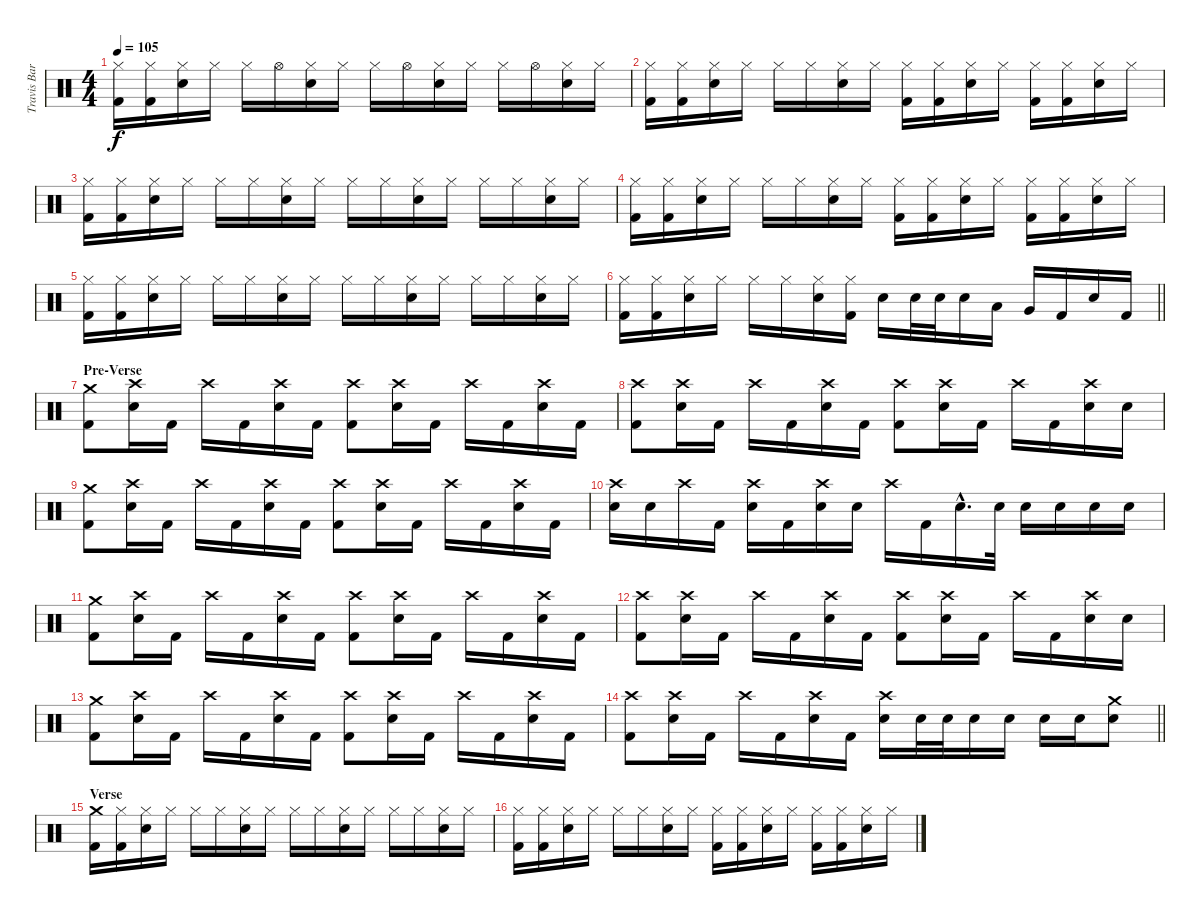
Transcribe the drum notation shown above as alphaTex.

\track ("Travis Barker" "Travis Bar") {instrument percussion}
\staff {score}
\articulation defaults
\ts (4 4)
\tempo 105
\clef neutral
\ks c
("Hi-Hat (closed)" "Kick (hit) 2").16{dy f} ("Hi-Hat (closed)" "Kick (hit) 2").16 ("Hi-Hat (closed)" "Electric Snare (hit)").16 "Hi-Hat (closed)".16 "Hi-Hat (closed)".16 "Hi-Hat (open)".16 ("Hi-Hat (closed)" "Electric Snare (hit)").16 "Hi-Hat (closed)".16 "Hi-Hat (closed)".16 "Hi-Hat (open)".16 ("Hi-Hat (closed)" "Electric Snare (hit)").16 "Hi-Hat (closed)".16 "Hi-Hat (closed)".16 "Hi-Hat (open)".16 ("Hi-Hat (closed)" "Electric Snare (hit)").16 "Hi-Hat (closed)".16 |
("Hi-Hat (closed)" "Kick (hit) 2").16 ("Hi-Hat (closed)" "Kick (hit) 2").16 ("Hi-Hat (closed)" "Electric Snare (hit)").16 "Hi-Hat (closed)".16 "Hi-Hat (closed)".16 "Hi-Hat (closed)".16 ("Hi-Hat (closed)" "Electric Snare (hit)").16 "Hi-Hat (closed)".16 ("Hi-Hat (closed)" "Kick (hit) 2").16 ("Hi-Hat (closed)" "Kick (hit) 2").16 ("Hi-Hat (closed)" "Electric Snare (hit)").16 "Hi-Hat (closed)".16 ("Hi-Hat (closed)" "Kick (hit) 2").16 ("Hi-Hat (closed)" "Kick (hit) 2").16 ("Hi-Hat (closed)" "Electric Snare (hit)").16 "Hi-Hat (closed)".16 |
("Hi-Hat (closed)" "Kick (hit) 2").16 ("Hi-Hat (closed)" "Kick (hit) 2").16 ("Hi-Hat (closed)" "Electric Snare (hit)").16 "Hi-Hat (closed)".16 "Hi-Hat (closed)".16 "Hi-Hat (closed)".16 ("Hi-Hat (closed)" "Electric Snare (hit)").16 "Hi-Hat (closed)".16 "Hi-Hat (closed)".16 "Hi-Hat (closed)".16 ("Hi-Hat (closed)" "Electric Snare (hit)").16 "Hi-Hat (closed)".16 "Hi-Hat (closed)".16 "Hi-Hat (closed)".16 ("Hi-Hat (closed)" "Electric Snare (hit)").16 "Hi-Hat (closed)".16 |
("Hi-Hat (closed)" "Kick (hit) 2").16 ("Hi-Hat (closed)" "Kick (hit) 2").16 ("Hi-Hat (closed)" "Electric Snare (hit)").16 "Hi-Hat (closed)".16 "Hi-Hat (closed)".16 "Hi-Hat (closed)".16 ("Hi-Hat (closed)" "Electric Snare (hit)").16 "Hi-Hat (closed)".16 ("Hi-Hat (closed)" "Kick (hit) 2").16 ("Hi-Hat (closed)" "Kick (hit) 2").16 ("Hi-Hat (closed)" "Electric Snare (hit)").16 "Hi-Hat (closed)".16 ("Hi-Hat (closed)" "Kick (hit) 2").16 ("Hi-Hat (closed)" "Kick (hit) 2").16 ("Hi-Hat (closed)" "Electric Snare (hit)").16 "Hi-Hat (closed)".16 |
("Hi-Hat (closed)" "Kick (hit) 2").16 ("Hi-Hat (closed)" "Kick (hit) 2").16 ("Hi-Hat (closed)" "Electric Snare (hit)").16 "Hi-Hat (closed)".16 "Hi-Hat (closed)".16 "Hi-Hat (closed)".16 ("Hi-Hat (closed)" "Electric Snare (hit)").16 "Hi-Hat (closed)".16 "Hi-Hat (closed)".16 "Hi-Hat (closed)".16 ("Hi-Hat (closed)" "Electric Snare (hit)").16 "Hi-Hat (closed)".16 "Hi-Hat (closed)".16 "Hi-Hat (closed)".16 ("Hi-Hat (closed)" "Electric Snare (hit)").16 "Hi-Hat (closed)".16 |
\barLineRight lightlight
("Hi-Hat (closed)" "Kick (hit) 2").16 ("Hi-Hat (closed)" "Kick (hit) 2").16 ("Hi-Hat (closed)" "Electric Snare (hit)").16 "Hi-Hat (closed)".16 "Hi-Hat (closed)".16 "Hi-Hat (closed)".16 ("Hi-Hat (closed)" "Electric Snare (hit)").16 ("Hi-Hat (closed)" "Kick (hit) 2").16 "Electric Snare (hit)".16 "Electric Snare (hit)".32 "Electric Snare (hit)".32 "Electric Snare (hit)".16 "Low Tom (hit)".16 "Very Low Tom (hit)".16 "Kick (hit) 2".16 "Electric Snare (hit)".16 "Kick (hit) 2".16 |
\section ("" "Pre-Verse")
("Crash medium (hit)" "Kick (hit) 2").8 ("Crash high (hit)" "Electric Snare (hit)").16 "Kick (hit) 2".16 "Crash high (hit)".16 "Kick (hit) 2".16 ("Crash high (hit)" "Electric Snare (hit)").16 "Kick (hit) 2".16 ("Crash high (hit)" "Kick (hit) 2").8 ("Crash high (hit)" "Electric Snare (hit)").16 "Kick (hit) 2".16 "Crash high (hit)".16 "Kick (hit) 2".16 ("Crash high (hit)" "Electric Snare (hit)").16 "Kick (hit) 2".16 |
("Crash high (hit)" "Kick (hit) 2").8 ("Crash high (hit)" "Electric Snare (hit)").16 "Kick (hit) 2".16 "Crash high (hit)".16 "Kick (hit) 2".16 ("Crash high (hit)" "Electric Snare (hit)").16 "Kick (hit) 2".16 ("Crash high (hit)" "Kick (hit) 2").8 ("Crash high (hit)" "Electric Snare (hit)").16 "Kick (hit) 2".16 "Crash high (hit)".16 "Kick (hit) 2".16 ("Crash high (hit)" "Electric Snare (hit)").16 "Electric Snare (hit)".16 |
("Crash medium (hit)" "Kick (hit) 2").8 ("Crash high (hit)" "Electric Snare (hit)").16 "Kick (hit) 2".16 "Crash high (hit)".16 "Kick (hit) 2".16 ("Crash high (hit)" "Electric Snare (hit)").16 "Kick (hit) 2".16 ("Crash high (hit)" "Kick (hit) 2").8 ("Crash high (hit)" "Electric Snare (hit)").16 "Kick (hit) 2".16 "Crash high (hit)".16 "Kick (hit) 2".16 ("Crash high (hit)" "Electric Snare (hit)").16 "Kick (hit) 2".16 |
("Crash high (hit)" "Electric Snare (hit)").16 "Electric Snare (hit)".16 "Crash high (hit)".16 "Kick (hit) 2".16 ("Crash high (hit)" "Electric Snare (hit)").16 "Kick (hit) 2".16 ("Crash high (hit)" "Electric Snare (hit)").16 "Electric Snare (hit)".16 "Crash high (hit)".16 "Kick (hit) 2".16 "Electric Snare (hit)"{hac}.16{d} "Electric Snare (hit)".32 "Electric Snare (hit)".16 "Electric Snare (hit)".16 "Electric Snare (hit)".16 "Electric Snare (hit)".16 |
("Crash medium (hit)" "Kick (hit) 2").8 ("Crash high (hit)" "Electric Snare (hit)").16 "Kick (hit) 2".16 "Crash high (hit)".16 "Kick (hit) 2".16 ("Crash high (hit)" "Electric Snare (hit)").16 "Kick (hit) 2".16 ("Crash high (hit)" "Kick (hit) 2").8 ("Crash high (hit)" "Electric Snare (hit)").16 "Kick (hit) 2".16 "Crash high (hit)".16 "Kick (hit) 2".16 ("Crash high (hit)" "Electric Snare (hit)").16 "Kick (hit) 2".16 |
("Crash high (hit)" "Kick (hit) 2").8 ("Crash high (hit)" "Electric Snare (hit)").16 "Kick (hit) 2".16 "Crash high (hit)".16 "Kick (hit) 2".16 ("Crash high (hit)" "Electric Snare (hit)").16 "Kick (hit) 2".16 ("Crash high (hit)" "Kick (hit) 2").8 ("Crash high (hit)" "Electric Snare (hit)").16 "Kick (hit) 2".16 "Crash high (hit)".16 "Kick (hit) 2".16 ("Crash high (hit)" "Electric Snare (hit)").16 "Electric Snare (hit)".16 |
("Crash medium (hit)" "Kick (hit) 2").8 ("Crash high (hit)" "Electric Snare (hit)").16 "Kick (hit) 2".16 "Crash high (hit)".16 "Kick (hit) 2".16 ("Crash high (hit)" "Electric Snare (hit)").16 "Kick (hit) 2".16 ("Crash high (hit)" "Kick (hit) 2").8 ("Crash high (hit)" "Electric Snare (hit)").16 "Kick (hit) 2".16 "Crash high (hit)".16 "Kick (hit) 2".16 ("Crash high (hit)" "Electric Snare (hit)").16 "Kick (hit) 2".16 |
\barLineRight lightlight
("Crash high (hit)" "Kick (hit) 2").8 ("Crash high (hit)" "Electric Snare (hit)").16 "Kick (hit) 2".16 "Crash high (hit)".16 "Kick (hit) 2".16 ("Crash high (hit)" "Electric Snare (hit)").16 "Kick (hit) 2".16 ("Crash high (hit)" "Electric Snare (hit)").16 "Electric Snare (hit)".32 "Electric Snare (hit)".32 "Electric Snare (hit)".16 "Electric Snare (hit)".16 "Electric Snare (hit)".16 "Electric Snare (hit)".16 ("Crash medium (hit)" "Electric Snare (hit)").8 |
\section ("" "Verse")
("Crash medium (hit)" "Kick (hit) 2").16 ("Hi-Hat (closed)" "Kick (hit) 2").16 ("Hi-Hat (closed)" "Electric Snare (hit)").16 "Hi-Hat (closed)".16 "Hi-Hat (closed)".16 "Hi-Hat (closed)".16 ("Hi-Hat (closed)" "Electric Snare (hit)").16 "Hi-Hat (closed)".16 "Hi-Hat (closed)".16 "Hi-Hat (closed)".16 ("Hi-Hat (closed)" "Electric Snare (hit)").16 "Hi-Hat (closed)".16 "Hi-Hat (closed)".16 "Hi-Hat (closed)".16 ("Hi-Hat (closed)" "Electric Snare (hit)").16 "Hi-Hat (closed)".16 |
("Hi-Hat (closed)" "Kick (hit) 2").16 ("Hi-Hat (closed)" "Kick (hit) 2").16 ("Hi-Hat (closed)" "Electric Snare (hit)").16 "Hi-Hat (closed)".16 "Hi-Hat (closed)".16 "Hi-Hat (closed)".16 ("Hi-Hat (closed)" "Electric Snare (hit)").16 "Hi-Hat (closed)".16 ("Hi-Hat (closed)" "Kick (hit) 2").16 ("Hi-Hat (closed)" "Kick (hit) 2").16 ("Hi-Hat (closed)" "Electric Snare (hit)").16 "Hi-Hat (closed)".16 ("Hi-Hat (closed)" "Kick (hit) 2").16 ("Hi-Hat (closed)" "Kick (hit) 2").16 ("Hi-Hat (closed)" "Electric Snare (hit)").16 "Hi-Hat (closed)".16
